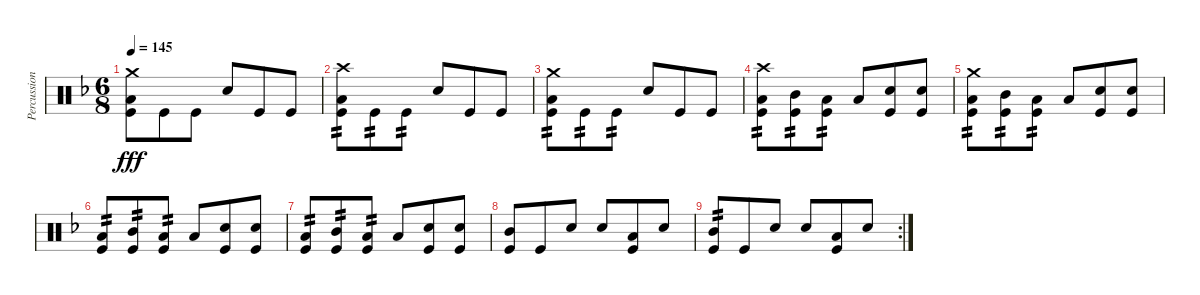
\track ("Percussion" "Percussion") {instrument percussion}
\staff {score}
\articulation defaults
\ts (6 8)
\tempo 145
\clef neutral
\ks dminor
("Kick (hit)" "Low Floor Tom (hit)" "Crash medium (hit)").8{dy fff} "Kick (hit)".8 "Kick (hit)".8 "Electric Snare (hit)".8 "Kick (hit)".8 "Kick (hit)".8 |
("Kick (hit)" "Low Floor Tom (hit)" "Crash high (hit)").8{tp 2} "Kick (hit)".8{tp 2} "Kick (hit)".8{tp 2} "Electric Snare (hit)".8 "Kick (hit)".8 "Kick (hit)".8 |
("Kick (hit)" "Low Floor Tom (hit)" "Crash medium (hit)").8{tp 2} "Kick (hit)".8{tp 2} "Kick (hit)".8{tp 2} "Electric Snare (hit)".8 "Kick (hit)".8 "Kick (hit)".8 |
("Kick (hit)" "Low Floor Tom (hit)" "Crash high (hit)").8{tp 2} ("Kick (hit)" "Mid Tom (hit)").8{tp 2} ("Kick (hit)" "Low Tom (hit)").8{tp 2} "Low Floor Tom (hit)".8 ("Kick (hit)" "Electric Snare (hit)").8 ("Kick (hit)" "Electric Snare (hit)").8 |
("Kick (hit)" "Low Floor Tom (hit)" "Crash medium (hit)").8{tp 2} ("Kick (hit)" "Mid Tom (hit)").8{tp 2} ("Kick (hit)" "Low Tom (hit)").8{tp 2} "Low Floor Tom (hit)".8 ("Kick (hit)" "Electric Snare (hit)").8 ("Kick (hit)" "Electric Snare (hit)").8 |
("Kick (hit)" "Low Floor Tom (hit)").8{tp 2} ("Kick (hit)" "Mid Tom (hit)").8{tp 2} ("Kick (hit)" "Low Tom (hit)").8{tp 2} "Low Floor Tom (hit)".8 ("Kick (hit)" "Electric Snare (hit)").8 ("Kick (hit)" "Electric Snare (hit)").8 |
("Kick (hit)" "Low Floor Tom (hit)").8{tp 2} ("Kick (hit)" "Mid Tom (hit)").8{tp 2} ("Kick (hit)" "Low Tom (hit)").8{tp 2} "Low Floor Tom (hit)".8 ("Kick (hit)" "Electric Snare (hit)").8 ("Kick (hit)" "Electric Snare (hit)").8 |
("Kick (hit)" "Mid Tom (hit)").8 "Kick (hit)".8 "Electric Snare (hit)".8 "Electric Snare (hit)".8 ("Kick (hit)" "Low Floor Tom (hit)").8 "Electric Snare (hit)".8 |
\rc 2
("Kick (hit)" "Mid Tom (hit)").8{tp 2} "Kick (hit)".8 "Electric Snare (hit)".8 "Electric Snare (hit)".8 ("Kick (hit)" "Low Floor Tom (hit)").8 "Electric Snare (hit)".8
